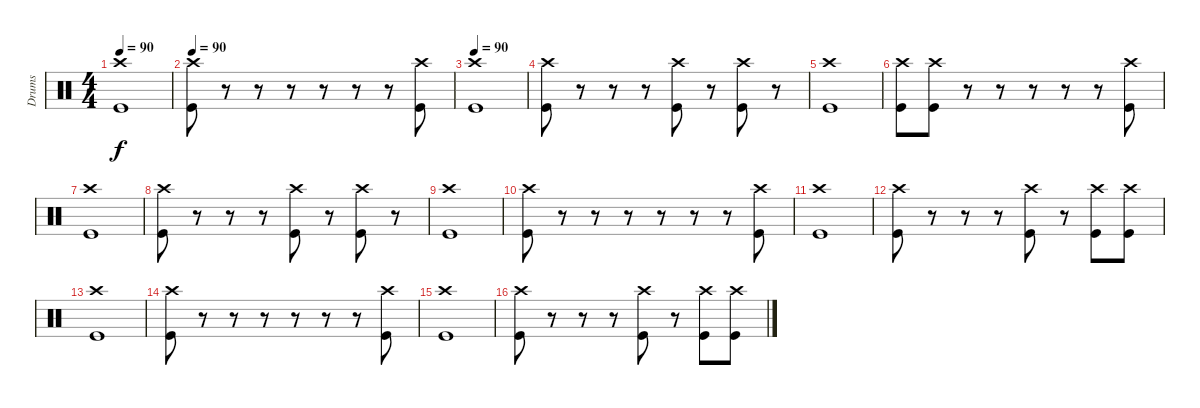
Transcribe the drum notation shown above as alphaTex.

\track ("Drums" "Drums") {instrument percussion}
\staff {score}
\articulation defaults
\ts (4 4)
\tempo 90
\clef neutral
\ks c
("Crash high (hit)" "Kick (hit)").1{dy f} |
\tempo 90
("Crash high (hit)" "Kick (hit)").8 r.8 r.8 r.8 r.8 r.8 r.8 ("Crash high (hit)" "Kick (hit)").8 |
\tempo 90
("Crash high (hit)" "Kick (hit)").1 |
("Crash high (hit)" "Kick (hit)").8 r.8 r.8 r.8 ("Crash high (hit)" "Kick (hit)").8 r.8 ("Crash high (hit)" "Kick (hit)").8 r.8 |
("Crash high (hit)" "Kick (hit)").1 |
("Crash high (hit)" "Kick (hit)").8 ("Crash high (hit)" "Kick (hit)").8 r.8 r.8 r.8 r.8 r.8 ("Crash high (hit)" "Kick (hit)").8 |
("Crash high (hit)" "Kick (hit)").1 |
("Crash high (hit)" "Kick (hit)").8 r.8 r.8 r.8 ("Crash high (hit)" "Kick (hit)").8 r.8 ("Crash high (hit)" "Kick (hit)").8 r.8 |
("Crash high (hit)" "Kick (hit)").1 |
("Crash high (hit)" "Kick (hit)").8 r.8 r.8 r.8 r.8 r.8 r.8 ("Crash high (hit)" "Kick (hit)").8 |
("Crash high (hit)" "Kick (hit)").1 |
("Crash high (hit)" "Kick (hit)").8 r.8 r.8 r.8 ("Crash high (hit)" "Kick (hit)").8 r.8 ("Crash high (hit)" "Kick (hit)").8 ("Crash high (hit)" "Kick (hit)").8 |
("Crash high (hit)" "Kick (hit)").1 |
("Crash high (hit)" "Kick (hit)").8 r.8 r.8 r.8 r.8 r.8 r.8 ("Crash high (hit)" "Kick (hit)").8 |
("Crash high (hit)" "Kick (hit)").1 |
("Crash high (hit)" "Kick (hit)").8 r.8 r.8 r.8 ("Crash high (hit)" "Kick (hit)").8 r.8 ("Crash high (hit)" "Kick (hit)").8 ("Crash high (hit)" "Kick (hit)").8
